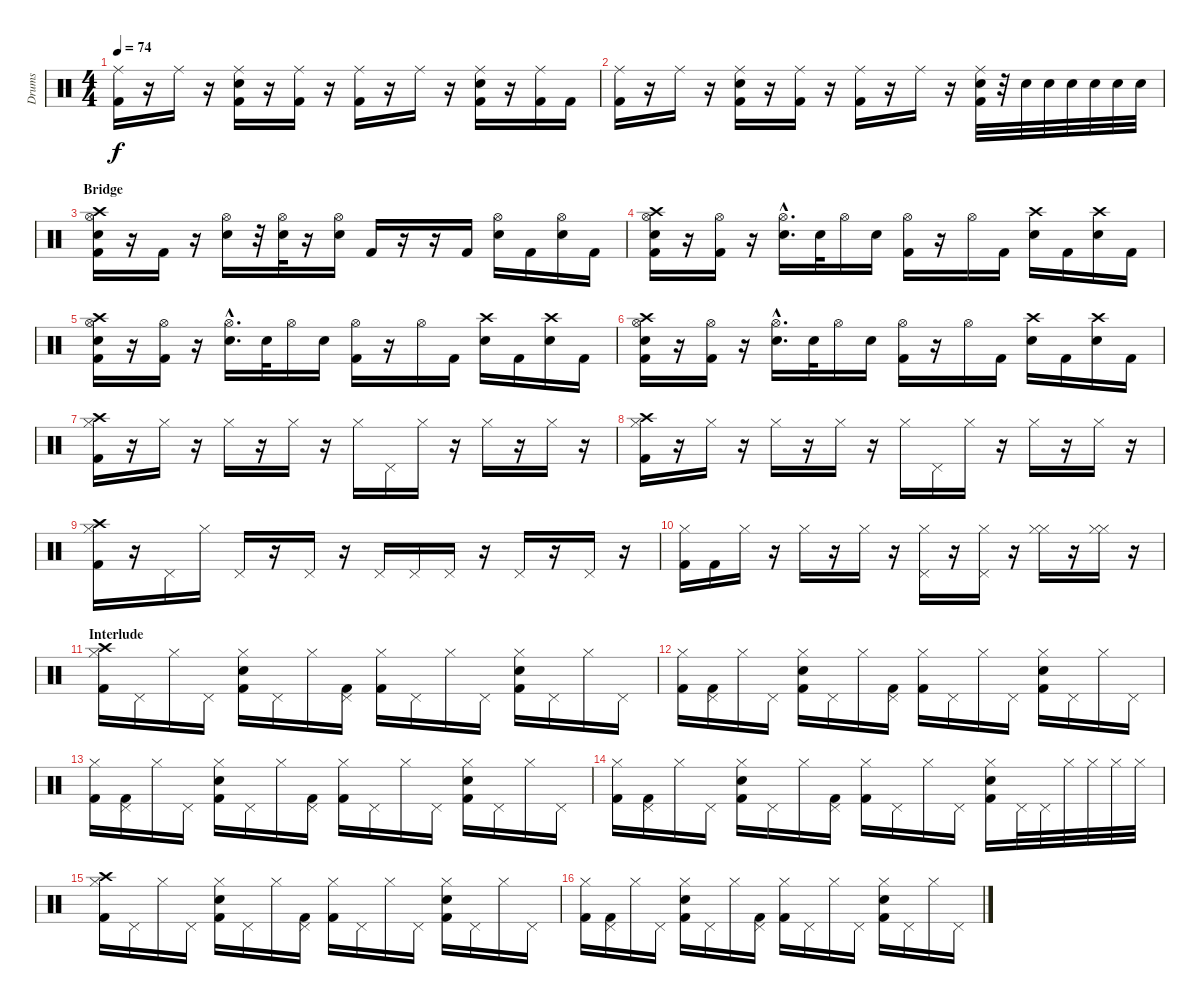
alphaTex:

\track ("Drums" "Drums") {instrument percussion}
\staff {score}
\articulation defaults
\ts (4 4)
\tempo 74
\clef neutral
\ks c
("Ride (middle)" "Kick (hit) 2").16{dy f} r.16 "Ride (middle)".16 r.16 ("Ride (middle)" "Kick (hit) 2" "Snare (hit) 2").16 r.16 ("Ride (middle)" "Kick (hit) 2").16 r.16 ("Ride (middle)" "Kick (hit) 2").16 r.16 "Ride (middle)".16 r.16 ("Ride (middle)" "Kick (hit) 2" "Snare (hit) 2").16 r.16 ("Ride (middle)" "Kick (hit) 2").16 "Kick (hit) 2".16 |
("Ride (middle)" "Kick (hit) 2").16 r.16 "Ride (middle)".16 r.16 ("Ride (middle)" "Kick (hit) 2" "Snare (hit) 2").16 r.16 ("Ride (middle)" "Kick (hit) 2").16 r.16 ("Ride (middle)" "Kick (hit) 2").16 r.16 "Ride (middle)".16 r.16 ("Ride (middle)" "Kick (hit) 2" "Snare (hit) 2").32 r.32 "Snare (hit) 2".32 "Snare (hit) 2".32 "Snare (hit) 2".32 "Snare (hit) 2".32 "Snare (hit) 2".32 "Snare (hit) 2".32 |
\section ("" "Bridge")
("Crash high (hit)" "Hi-Hat (open)" "Kick (hit) 2" "Snare (hit) 2").16 r.16 "Kick (hit) 2".16 r.16 ("Hi-Hat (open)" "Snare (hit) 2").16 r.32 ("Hi-Hat (open)" "Snare (hit) 2").32 r.16 ("Hi-Hat (open)" "Snare (hit) 2").16 "Kick (hit) 2".16 r.16 r.16 "Kick (hit) 2".16 ("Hi-Hat (open)" "Snare (hit) 2").16 "Kick (hit) 2".16 ("Hi-Hat (open)" "Snare (hit) 2").16 "Kick (hit) 2".16 |
("Crash high (hit)" "Hi-Hat (open)" "Kick (hit) 2" "Snare (hit) 2").16 r.16 ("Hi-Hat (open)" "Kick (hit) 2").16 r.16 ("Hi-Hat (open)"{hac} "Snare (hit) 2"{hac}).16{d} "Snare (hit) 2".32 "Hi-Hat (open)".16 "Snare (hit) 2".16 ("Hi-Hat (open)" "Kick (hit) 2").16 r.16 "Hi-Hat (open)".16 "Kick (hit) 2".16 ("Crash high (hit)" "Snare (hit) 2").16 "Kick (hit) 2".16 ("Crash high (hit)" "Snare (hit) 2").16 "Kick (hit) 2".16 |
("Crash high (hit)" "Hi-Hat (open)" "Kick (hit) 2" "Snare (hit) 2").16 r.16 ("Hi-Hat (open)" "Kick (hit) 2").16 r.16 ("Hi-Hat (open)"{hac} "Snare (hit) 2"{hac}).16{d} "Snare (hit) 2".32 "Hi-Hat (open)".16 "Snare (hit) 2".16 ("Hi-Hat (open)" "Kick (hit) 2").16 r.16 "Hi-Hat (open)".16 "Kick (hit) 2".16 ("Crash high (hit)" "Snare (hit) 2").16 "Kick (hit) 2".16 ("Crash high (hit)" "Snare (hit) 2").16 "Kick (hit) 2".16 |
("Crash high (hit)" "Hi-Hat (open)" "Kick (hit) 2" "Snare (hit) 2").16 r.16 ("Hi-Hat (open)" "Kick (hit) 2").16 r.16 ("Hi-Hat (open)"{hac} "Snare (hit) 2"{hac}).16{d} "Snare (hit) 2".32 "Hi-Hat (open)".16 "Snare (hit) 2".16 ("Hi-Hat (open)" "Kick (hit) 2").16 r.16 "Hi-Hat (open)".16 "Kick (hit) 2".16 ("Crash high (hit)" "Snare (hit) 2").16 "Kick (hit) 2".16 ("Crash high (hit)" "Snare (hit) 2").16 "Kick (hit) 2".16 |
("Hi-Hat (closed)" "Crash high (hit)" "Kick (hit) 2").16 r.16 "Hi-Hat (closed)".16 r.16 "Hi-Hat (closed)".16 r.16 "Hi-Hat (closed)".16 r.16 "Hi-Hat (closed)".16 "Pedal Hi-Hat (hit)".16 "Hi-Hat (closed)".16 r.16 "Hi-Hat (closed)".16 r.16 "Hi-Hat (closed)".16 r.16 |
("Hi-Hat (closed)" "Crash high (hit)" "Kick (hit) 2").16 r.16 "Hi-Hat (closed)".16 r.16 "Hi-Hat (closed)".16 r.16 "Hi-Hat (closed)".16 r.16 "Hi-Hat (closed)".16 "Pedal Hi-Hat (hit)".16 "Hi-Hat (closed)".16 r.16 "Hi-Hat (closed)".16 r.16 "Hi-Hat (closed)".16 r.16 |
("Hi-Hat (closed)" "Crash high (hit)" "Kick (hit) 2").16 r.16 "Pedal Hi-Hat (hit)".16 "Hi-Hat (closed)".16 "Pedal Hi-Hat (hit)".16 r.16 "Pedal Hi-Hat (hit)".16 r.16 "Pedal Hi-Hat (hit)".16 "Pedal Hi-Hat (hit)".16 "Pedal Hi-Hat (hit)".16 r.16 "Pedal Hi-Hat (hit)".16 r.16 "Pedal Hi-Hat (hit)".16 r.16 |
("Hi-Hat (closed)" "Kick (hit) 2").16 "Kick (hit) 2".16 "Hi-Hat (closed)".16 r.16 "Hi-Hat (closed)".16 r.16 "Hi-Hat (closed)".16 r.16 ("Hi-Hat (closed)" "Pedal Hi-Hat (hit)").16 r.16 ("Hi-Hat (closed)" "Pedal Hi-Hat (hit)").16 r.16 ("Hi-Hat (closed)" "Hi-Hat (closed)").16 r.16 ("Hi-Hat (closed)" "Hi-Hat (closed)").16 r.16 |
\section ("" "Interlude")
("Hi-Hat (closed)" "Crash high (hit)" "Kick (hit) 2").16 "Pedal Hi-Hat (hit)".16 "Hi-Hat (closed)".16 "Pedal Hi-Hat (hit)".16 ("Hi-Hat (closed)" "Kick (hit) 2" "Snare (hit) 2").16 "Pedal Hi-Hat (hit)".16 "Hi-Hat (closed)".16 ("Pedal Hi-Hat (hit)" "Kick (hit) 2").16 ("Hi-Hat (closed)" "Kick (hit) 2").16 "Pedal Hi-Hat (hit)".16 "Hi-Hat (closed)".16 "Pedal Hi-Hat (hit)".16 ("Hi-Hat (closed)" "Kick (hit) 2" "Snare (hit) 2").16 "Pedal Hi-Hat (hit)".16 "Hi-Hat (closed)".16 "Pedal Hi-Hat (hit)".16 |
("Hi-Hat (closed)" "Kick (hit) 2").16 ("Pedal Hi-Hat (hit)" "Kick (hit) 2").16 "Hi-Hat (closed)".16 "Pedal Hi-Hat (hit)".16 ("Hi-Hat (closed)" "Kick (hit) 2" "Snare (hit) 2").16 "Pedal Hi-Hat (hit)".16 "Hi-Hat (closed)".16 ("Pedal Hi-Hat (hit)" "Kick (hit) 2").16 ("Hi-Hat (closed)" "Kick (hit) 2").16 "Pedal Hi-Hat (hit)".16 "Hi-Hat (closed)".16 "Pedal Hi-Hat (hit)".16 ("Hi-Hat (closed)" "Kick (hit) 2" "Snare (hit) 2").16 "Pedal Hi-Hat (hit)".16 "Hi-Hat (closed)".16 "Pedal Hi-Hat (hit)".16 |
("Hi-Hat (closed)" "Kick (hit) 2").16 ("Pedal Hi-Hat (hit)" "Kick (hit) 2").16 "Hi-Hat (closed)".16 "Pedal Hi-Hat (hit)".16 ("Hi-Hat (closed)" "Kick (hit) 2" "Snare (hit) 2").16 "Pedal Hi-Hat (hit)".16 "Hi-Hat (closed)".16 ("Pedal Hi-Hat (hit)" "Kick (hit) 2").16 ("Hi-Hat (closed)" "Kick (hit) 2").16 "Pedal Hi-Hat (hit)".16 "Hi-Hat (closed)".16 "Pedal Hi-Hat (hit)".16 ("Hi-Hat (closed)" "Kick (hit) 2" "Snare (hit) 2").16 "Pedal Hi-Hat (hit)".16 "Hi-Hat (closed)".16 "Pedal Hi-Hat (hit)".16 |
("Hi-Hat (closed)" "Kick (hit) 2").16 ("Pedal Hi-Hat (hit)" "Kick (hit) 2").16 "Hi-Hat (closed)".16 "Pedal Hi-Hat (hit)".16 ("Hi-Hat (closed)" "Kick (hit) 2" "Snare (hit) 2").16 "Pedal Hi-Hat (hit)".16 "Hi-Hat (closed)".16 ("Pedal Hi-Hat (hit)" "Kick (hit) 2").16 ("Hi-Hat (closed)" "Kick (hit) 2").16 "Pedal Hi-Hat (hit)".16 "Hi-Hat (closed)".16 "Pedal Hi-Hat (hit)".16 ("Hi-Hat (closed)" "Kick (hit) 2" "Snare (hit) 2").16 "Pedal Hi-Hat (hit)".32 "Pedal Hi-Hat (hit)".32 "Hi-Hat (closed)".32 "Hi-Hat (closed)".32 "Hi-Hat (closed)".32 "Hi-Hat (closed)".32 |
("Hi-Hat (closed)" "Crash high (hit)" "Kick (hit) 2").16 "Pedal Hi-Hat (hit)".16 "Hi-Hat (closed)".16 "Pedal Hi-Hat (hit)".16 ("Hi-Hat (closed)" "Kick (hit) 2" "Snare (hit) 2").16 "Pedal Hi-Hat (hit)".16 "Hi-Hat (closed)".16 ("Pedal Hi-Hat (hit)" "Kick (hit) 2").16 ("Hi-Hat (closed)" "Kick (hit) 2").16 "Pedal Hi-Hat (hit)".16 "Hi-Hat (closed)".16 "Pedal Hi-Hat (hit)".16 ("Hi-Hat (closed)" "Kick (hit) 2" "Snare (hit) 2").16 "Pedal Hi-Hat (hit)".16 "Hi-Hat (closed)".16 "Pedal Hi-Hat (hit)".16 |
("Hi-Hat (closed)" "Kick (hit) 2").16 ("Pedal Hi-Hat (hit)" "Kick (hit) 2").16 "Hi-Hat (closed)".16 "Pedal Hi-Hat (hit)".16 ("Hi-Hat (closed)" "Kick (hit) 2" "Snare (hit) 2").16 "Pedal Hi-Hat (hit)".16 "Hi-Hat (closed)".16 ("Pedal Hi-Hat (hit)" "Kick (hit) 2").16 ("Hi-Hat (closed)" "Kick (hit) 2").16 "Pedal Hi-Hat (hit)".16 "Hi-Hat (closed)".16 "Pedal Hi-Hat (hit)".16 ("Hi-Hat (closed)" "Kick (hit) 2" "Snare (hit) 2").16 "Pedal Hi-Hat (hit)".16 "Hi-Hat (closed)".16 "Pedal Hi-Hat (hit)".16
